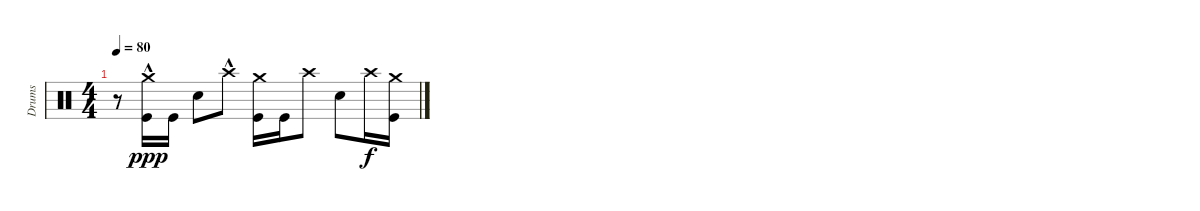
\track ("Drums" "Drums") {instrument percussion}
\staff {score}
\articulation defaults
\ts (4 4)
\tempo 80
\clef neutral
\ks c
r.8{dy ppp} ("Crash medium (hit)"{hac} "Kick (hit)").16 "Kick (hit)".16 "Electric Snare (hit)".8 "Crash high (hit)"{hac}.8 ("Crash medium (hit)" "Kick (hit)").16 "Kick (hit)".16 "Crash high (hit)".8 "Electric Snare (hit)".8 "Crash high (hit)".16{dy f} ("Kick (hit)" "Crash medium (hit)").16
